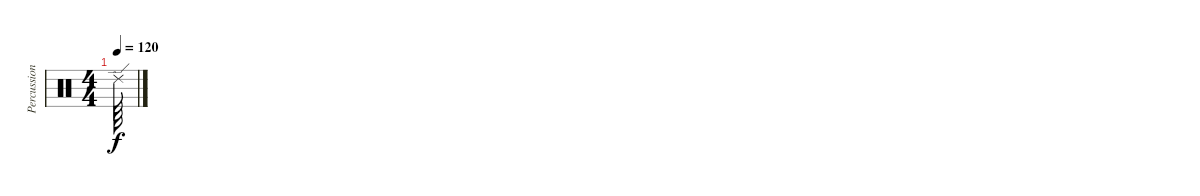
\track ("Percussion" "Percussion") {instrument percussion}
\staff {score}
\articulation defaults
\ts (4 4)
\tempo 120
\clef neutral
\ks c "Ride (edge) 2".64{dy f}
